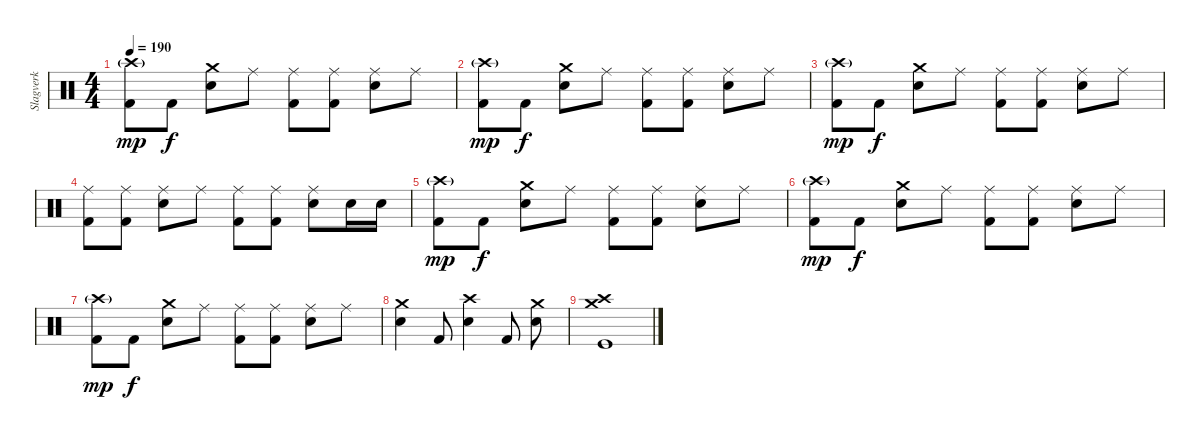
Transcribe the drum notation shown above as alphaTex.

\track ("Slagverk" "Slagverk") {instrument percussion}
\staff {score}
\articulation defaults
\ts (4 4)
\tempo 190
\clef neutral
\ks c
("Kick (hit) 2" "Crash high (hit)"{g}).8{dy mp} "Kick (hit) 2".8{dy f} ("Electric Snare (hit)" "Crash medium (hit)").8 "Ride (middle)".8 ("Kick (hit) 2" "Ride (middle)").8 ("Kick (hit) 2" "Ride (middle)").8 ("Electric Snare (hit)" "Ride (middle)").8 "Ride (middle)".8 |
("Kick (hit) 2" "Crash high (hit)"{g}).8{dy mp} "Kick (hit) 2".8{dy f} ("Electric Snare (hit)" "Crash medium (hit)").8 "Ride (middle)".8 ("Kick (hit) 2" "Ride (middle)").8 ("Kick (hit) 2" "Ride (middle)").8 ("Electric Snare (hit)" "Ride (middle)").8 "Ride (middle)".8 |
("Kick (hit) 2" "Crash high (hit)"{g}).8{dy mp} "Kick (hit) 2".8{dy f} ("Electric Snare (hit)" "Crash medium (hit)").8 "Ride (middle)".8 ("Kick (hit) 2" "Ride (middle)").8 ("Kick (hit) 2" "Ride (middle)").8 ("Electric Snare (hit)" "Ride (middle)").8 "Ride (middle)".8 |
("Kick (hit) 2" "Ride (middle)").8 ("Kick (hit) 2" "Ride (middle)").8 ("Electric Snare (hit)" "Ride (middle)").8 "Ride (middle)".8 ("Kick (hit) 2" "Ride (middle)").8 ("Kick (hit) 2" "Ride (middle)").8 ("Electric Snare (hit)" "Ride (middle)").8 "Electric Snare (hit)".16 "Electric Snare (hit)".16 |
("Kick (hit) 2" "Crash high (hit)"{g}).8{dy mp} "Kick (hit) 2".8{dy f} ("Electric Snare (hit)" "Crash medium (hit)").8 "Ride (middle)".8 ("Kick (hit) 2" "Ride (middle)").8 ("Kick (hit) 2" "Ride (middle)").8 ("Electric Snare (hit)" "Ride (middle)").8 "Ride (middle)".8 |
("Kick (hit) 2" "Crash high (hit)"{g}).8{dy mp} "Kick (hit) 2".8{dy f} ("Electric Snare (hit)" "Crash medium (hit)").8 "Ride (middle)".8 ("Kick (hit) 2" "Ride (middle)").8 ("Kick (hit) 2" "Ride (middle)").8 ("Electric Snare (hit)" "Ride (middle)").8 "Ride (middle)".8 |
("Kick (hit) 2" "Crash high (hit)"{g}).8{dy mp} "Kick (hit) 2".8{dy f} ("Electric Snare (hit)" "Crash medium (hit)").8 "Ride (middle)".8 ("Kick (hit) 2" "Ride (middle)").8 ("Kick (hit) 2" "Ride (middle)").8 ("Electric Snare (hit)" "Ride (middle)").8 "Ride (middle)".8 |
("Electric Snare (hit)" "Crash medium (hit)").4 "Kick (hit) 2".8 ("Electric Snare (hit)" "Crash high (hit)").4 "Kick (hit) 2".8 ("Crash medium (hit)" "Electric Snare (hit)").8 |
("Kick (hit)" "Crash high (hit)" "Crash medium (hit)").1
